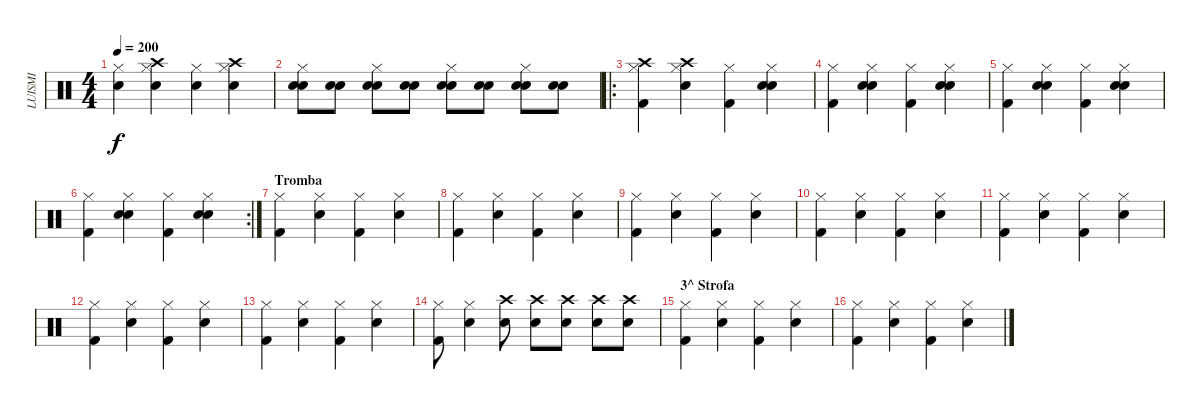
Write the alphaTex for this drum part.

\track ("LUISMI" "LUISMI") {instrument percussion}
\staff {score}
\articulation defaults
\ts (4 4)
\tempo 200
\clef neutral
\ks c
("Hi-Hat (closed)" "Snare (hit) 2").4{dy f} ("Hi-Hat (closed)" "Snare (hit) 2" "Crash high (hit)").4 ("Hi-Hat (closed)" "Snare (hit) 2").4 ("Hi-Hat (closed)" "Snare (hit) 2" "Crash high (hit)").4 |
("Hi-Hat (closed)" "Snare (hit) 2" "Electric Snare (hit)").8 ("Snare (hit) 2" "Electric Snare (hit)").8 ("Hi-Hat (closed)" "Snare (hit) 2" "Electric Snare (hit)").8 ("Snare (hit) 2" "Electric Snare (hit)").8 ("Hi-Hat (closed)" "Snare (hit) 2" "Electric Snare (hit)").8 ("Snare (hit) 2" "Electric Snare (hit)").8 ("Hi-Hat (closed)" "Snare (hit) 2" "Electric Snare (hit)").8 ("Snare (hit) 2" "Electric Snare (hit)").8 |
\ro
("Hi-Hat (closed)" "Kick (hit) 2" "Crash high (hit)").4 ("Hi-Hat (closed)" "Snare (hit) 2" "Crash high (hit)").4 ("Hi-Hat (closed)" "Kick (hit) 2").4 ("Hi-Hat (closed)" "Snare (hit) 2" "Electric Snare (hit)").4 |
("Hi-Hat (closed)" "Kick (hit) 2").4 ("Hi-Hat (closed)" "Snare (hit) 2" "Electric Snare (hit)").4 ("Hi-Hat (closed)" "Kick (hit) 2").4 ("Hi-Hat (closed)" "Snare (hit) 2" "Electric Snare (hit)").4 |
("Hi-Hat (closed)" "Kick (hit) 2").4 ("Hi-Hat (closed)" "Snare (hit) 2" "Electric Snare (hit)").4 ("Hi-Hat (closed)" "Kick (hit) 2").4 ("Hi-Hat (closed)" "Snare (hit) 2" "Electric Snare (hit)").4 |
\rc 2
("Hi-Hat (closed)" "Kick (hit) 2").4 ("Hi-Hat (closed)" "Snare (hit) 2" "Electric Snare (hit)").4 ("Hi-Hat (closed)" "Kick (hit) 2").4 ("Hi-Hat (closed)" "Snare (hit) 2" "Electric Snare (hit)").4 |
\section ("" "Tromba")
("Hi-Hat (closed)" "Kick (hit) 2").4 ("Hi-Hat (closed)" "Snare (hit) 2").4 ("Hi-Hat (closed)" "Kick (hit) 2").4 ("Hi-Hat (closed)" "Snare (hit) 2").4 |
("Hi-Hat (closed)" "Kick (hit) 2").4 ("Hi-Hat (closed)" "Snare (hit) 2").4 ("Hi-Hat (closed)" "Kick (hit) 2").4 ("Hi-Hat (closed)" "Snare (hit) 2").4 |
("Hi-Hat (closed)" "Kick (hit) 2").4 ("Hi-Hat (closed)" "Snare (hit) 2").4 ("Hi-Hat (closed)" "Kick (hit) 2").4 ("Hi-Hat (closed)" "Snare (hit) 2").4 |
("Hi-Hat (closed)" "Kick (hit) 2").4 ("Hi-Hat (closed)" "Snare (hit) 2").4 ("Hi-Hat (closed)" "Kick (hit) 2").4 ("Hi-Hat (closed)" "Snare (hit) 2").4 |
("Hi-Hat (closed)" "Kick (hit) 2").4 ("Hi-Hat (closed)" "Snare (hit) 2").4 ("Hi-Hat (closed)" "Kick (hit) 2").4 ("Hi-Hat (closed)" "Snare (hit) 2").4 |
("Hi-Hat (closed)" "Kick (hit) 2").4 ("Hi-Hat (closed)" "Snare (hit) 2").4 ("Hi-Hat (closed)" "Kick (hit) 2").4 ("Hi-Hat (closed)" "Snare (hit) 2").4 |
("Hi-Hat (closed)" "Kick (hit) 2").4 ("Hi-Hat (closed)" "Snare (hit) 2").4 ("Hi-Hat (closed)" "Kick (hit) 2").4 ("Hi-Hat (closed)" "Snare (hit) 2").4 |
("Hi-Hat (closed)" "Kick (hit) 2").8 ("Hi-Hat (closed)" "Snare (hit) 2").4 ("Snare (hit) 2" "Crash high (hit)").8 ("Snare (hit) 2" "Crash high (hit)").8 ("Snare (hit) 2" "Crash high (hit)").8 ("Snare (hit) 2" "Crash high (hit)").8 ("Snare (hit) 2" "Crash high (hit)").8 |
\section ("" "3^ Strofa")
("Hi-Hat (closed)" "Kick (hit) 2").4 ("Hi-Hat (closed)" "Snare (hit) 2").4 ("Hi-Hat (closed)" "Kick (hit) 2").4 ("Hi-Hat (closed)" "Snare (hit) 2").4 |
("Hi-Hat (closed)" "Kick (hit) 2").4 ("Hi-Hat (closed)" "Snare (hit) 2").4 ("Hi-Hat (closed)" "Kick (hit) 2").4 ("Hi-Hat (closed)" "Snare (hit) 2").4
